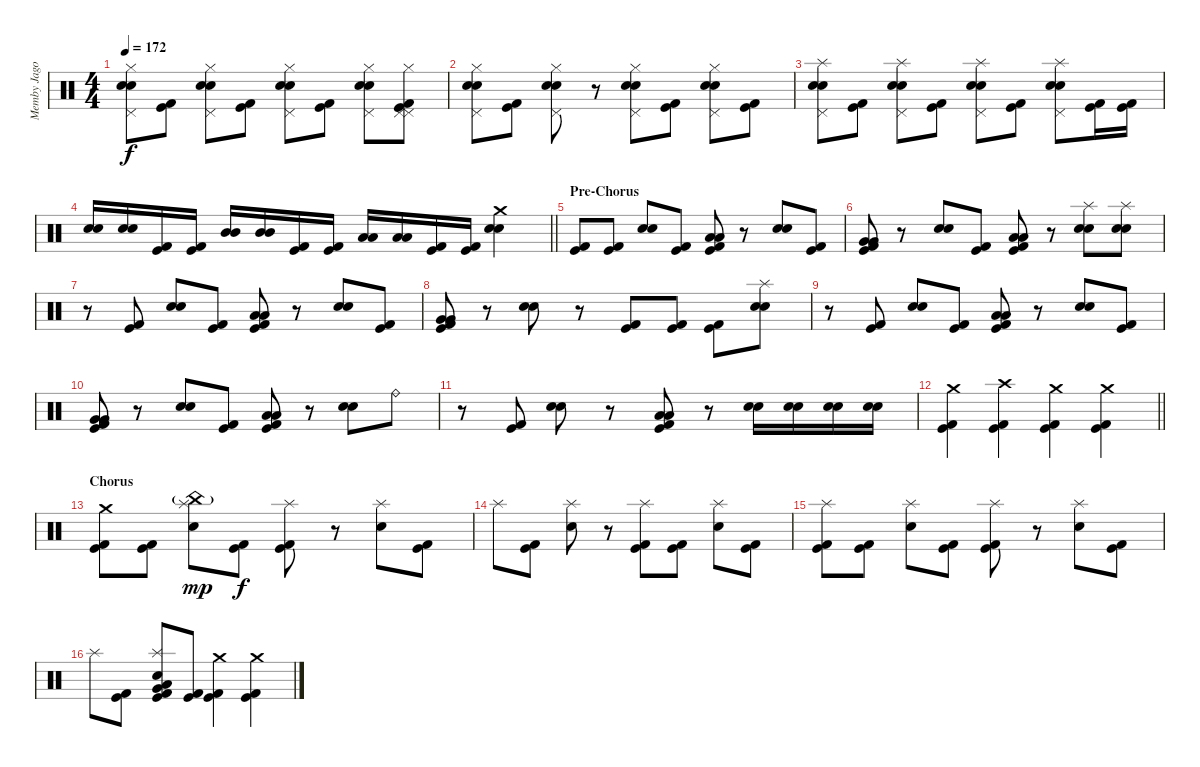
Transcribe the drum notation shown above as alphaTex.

\track ("Memby Jago" "Memby Jago") {instrument percussion}
\staff {score}
\articulation defaults
\ts (4 4)
\tempo 172
\clef neutral
\ks c
("Hi-Hat (closed)" "Pedal Hi-Hat (hit)" "Electric Snare (hit)" "Snare (hit) 2").8{dy f} ("Kick (hit)" "Kick (hit) 2").8 ("Hi-Hat (closed)" "Pedal Hi-Hat (hit)" "Electric Snare (hit)" "Snare (hit) 2").8 ("Kick (hit)" "Kick (hit) 2").8 ("Hi-Hat (closed)" "Pedal Hi-Hat (hit)" "Electric Snare (hit)" "Snare (hit) 2").8 ("Kick (hit)" "Kick (hit) 2").8 ("Hi-Hat (closed)" "Pedal Hi-Hat (hit)" "Electric Snare (hit)" "Snare (hit) 2").8 ("Pedal Hi-Hat (hit)" "Pedal Hi-Hat (hit)" "Hi-Hat (closed)" "Kick (hit)" "Kick (hit) 2").8 |
("Hi-Hat (closed)" "Pedal Hi-Hat (hit)" "Electric Snare (hit)" "Snare (hit) 2").8 ("Kick (hit)" "Kick (hit) 2").8 ("Hi-Hat (closed)" "Pedal Hi-Hat (hit)" "Electric Snare (hit)" "Snare (hit) 2").8 r.8 ("Hi-Hat (closed)" "Pedal Hi-Hat (hit)" "Electric Snare (hit)" "Snare (hit) 2").8 ("Kick (hit)" "Kick (hit) 2").8 ("Hi-Hat (closed)" "Pedal Hi-Hat (hit)" "Electric Snare (hit)" "Snare (hit) 2").8 ("Kick (hit)" "Kick (hit) 2").8 |
("Splash (hit)" "Pedal Hi-Hat (hit)" "Electric Snare (hit)" "Snare (hit) 2").8 ("Kick (hit)" "Kick (hit) 2").8 ("Splash (hit)" "Pedal Hi-Hat (hit)" "Electric Snare (hit)" "Snare (hit) 2").8 ("Kick (hit)" "Kick (hit) 2").8 ("Splash (hit)" "Pedal Hi-Hat (hit)" "Electric Snare (hit)" "Snare (hit) 2").8 ("Kick (hit)" "Kick (hit) 2").8 ("Splash (hit)" "Pedal Hi-Hat (hit)" "Electric Snare (hit)" "Snare (hit) 2").8 ("Kick (hit)" "Kick (hit) 2").16 ("Kick (hit)" "Kick (hit) 2").16 |
\barLineRight lightlight
("Electric Snare (hit)" "Snare (hit) 2").16 ("Electric Snare (hit)" "Snare (hit) 2").16 ("Kick (hit)" "Kick (hit) 2").16 ("Kick (hit)" "Kick (hit) 2").16 ("Mid Tom (hit)" "Mid Tom (hit)").16 ("Mid Tom (hit)" "Mid Tom (hit)").16 ("Kick (hit)" "Kick (hit) 2").16 ("Kick (hit)" "Kick (hit) 2").16 ("Low Tom (hit)" "Low Tom (hit)").16 ("Low Tom (hit)" "Low Tom (hit)").16 ("Kick (hit)" "Kick (hit) 2").16 ("Kick (hit)" "Kick (hit) 2").16 ("Crash medium (hit)" "Electric Snare (hit)" "Snare (hit) 2").4 |
\section ("" "Pre-Chorus")
("Kick (hit)" "Kick (hit) 2").8 ("Kick (hit)" "Kick (hit) 2").8 ("Electric Snare (hit)" "Snare (hit) 2").8 ("Kick (hit)" "Kick (hit) 2").8 ("Low Tom (hit)" "Low Tom (hit)" "Kick (hit)" "Kick (hit) 2").8 r.8 ("Electric Snare (hit)" "Snare (hit) 2").8 ("Kick (hit)" "Kick (hit) 2").8 |
("Very Low Tom (hit)" "Very Low Tom (hit)" "Kick (hit)" "Kick (hit) 2").8 r.8 ("Electric Snare (hit)" "Snare (hit) 2").8 ("Kick (hit)" "Kick (hit) 2").8 ("Low Floor Tom (hit)" "Low Floor Tom (hit)" "Kick (hit)" "Kick (hit) 2").8 r.8 ("Splash (hit)" "Electric Snare (hit)" "Snare (hit) 2").8 ("Splash (hit)" "Electric Snare (hit)" "Snare (hit) 2").8 |
r.8 ("Kick (hit)" "Kick (hit) 2").8 ("Electric Snare (hit)" "Snare (hit) 2").8 ("Kick (hit)" "Kick (hit) 2").8 ("Low Tom (hit)" "Low Tom (hit)" "Kick (hit)" "Kick (hit) 2").8 r.8 ("Electric Snare (hit)" "Snare (hit) 2").8 ("Kick (hit)" "Kick (hit) 2").8 |
("Very Low Tom (hit)" "Very Low Tom (hit)" "Kick (hit)" "Kick (hit) 2").8 r.8 ("Electric Snare (hit)" "Snare (hit) 2").8 r.8 ("Kick (hit)" "Kick (hit) 2").8 ("Kick (hit)" "Kick (hit) 2").8 ("Kick (hit)" "Kick (hit) 2").8 ("Splash (hit)" "Electric Snare (hit)" "Snare (hit) 2").8 |
r.8 ("Kick (hit)" "Kick (hit) 2").8 ("Electric Snare (hit)" "Snare (hit) 2").8 ("Kick (hit)" "Kick (hit) 2").8 ("Low Tom (hit)" "Low Tom (hit)" "Kick (hit)" "Kick (hit) 2").8 r.8 ("Electric Snare (hit)" "Snare (hit) 2").8 ("Kick (hit)" "Kick (hit) 2").8 |
("Very Low Tom (hit)" "Very Low Tom (hit)" "Kick (hit)" "Kick (hit) 2").8 r.8 ("Electric Snare (hit)" "Snare (hit) 2").8 ("Kick (hit)" "Kick (hit) 2").8 ("Low Floor Tom (hit)" "Low Floor Tom (hit)" "Kick (hit)" "Kick (hit) 2").8 r.8 ("Electric Snare (hit)" "Snare (hit) 2").8 "Ride (bell)".8 |
r.8 ("Kick (hit)" "Kick (hit) 2").8 ("Electric Snare (hit)" "Snare (hit) 2").8 r.8 ("Low Tom (hit)" "Low Tom (hit)" "Kick (hit)" "Kick (hit) 2").8 r.8 ("Electric Snare (hit)" "Snare (hit) 2").16 ("Electric Snare (hit)" "Snare (hit) 2").16 ("Electric Snare (hit)" "Snare (hit) 2").16 ("Electric Snare (hit)" "Snare (hit) 2").16 |
\barLineRight lightlight
("Crash medium (hit)" "Kick (hit)" "Kick (hit) 2").4 ("Crash high (hit)" "Kick (hit)" "Kick (hit) 2").4 ("Crash medium (hit)" "Kick (hit)" "Kick (hit) 2").4 ("Crash medium (hit)" "Kick (hit)" "Kick (hit) 2").4 |
\section ("" "Chorus")
("Crash medium (hit)" "Kick (hit)" "Kick (hit) 2").8 ("Kick (hit)" "Kick (hit) 2").8 ("Splash (hit)" "China (hit)"{g} "Snare (hit) 2").8{dy mp} ("Kick (hit)" "Kick (hit) 2").8{dy f} ("Splash (hit)" "Kick (hit)" "Kick (hit) 2").8 r.8 ("Splash (hit)" "Snare (hit) 2").8 ("Kick (hit)" "Kick (hit) 2").8 |
"Splash (hit)".8 ("Kick (hit)" "Kick (hit) 2").8 ("Splash (hit)" "Snare (hit) 2").8 r.8 ("Splash (hit)" "Kick (hit)" "Kick (hit) 2").8 ("Kick (hit)" "Kick (hit) 2").8 ("Splash (hit)" "Snare (hit) 2").8 ("Kick (hit)" "Kick (hit) 2").8 |
("Splash (hit)" "Kick (hit)" "Kick (hit) 2").8 ("Kick (hit)" "Kick (hit) 2").8 ("Splash (hit)" "Snare (hit) 2").8 ("Kick (hit)" "Kick (hit) 2").8 ("Splash (hit)" "Kick (hit)" "Kick (hit) 2").8 r.8 ("Splash (hit)" "Snare (hit) 2").8 ("Kick (hit)" "Kick (hit) 2").8 |
"Splash (hit)".8 ("Kick (hit)" "Kick (hit) 2").8 ("Low Tom (hit)" "Splash (hit)" "Very Low Tom (hit)" "Snare (hit) 2" "Kick (hit)" "Kick (hit) 2").8 ("Kick (hit)" "Kick (hit) 2").8 ("Crash medium (hit)" "Kick (hit)" "Kick (hit) 2").4 ("Crash medium (hit)" "Kick (hit)" "Kick (hit) 2").4
